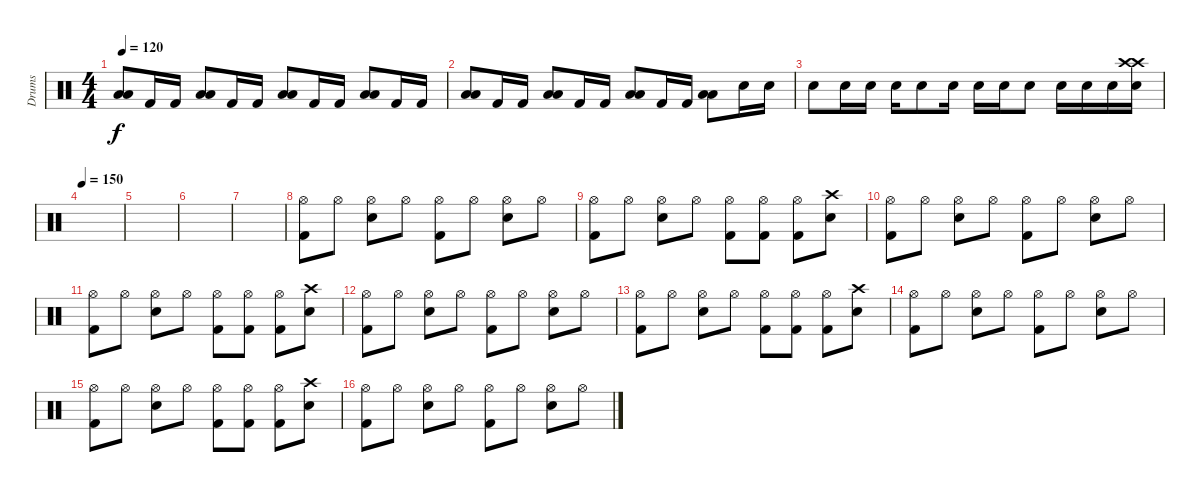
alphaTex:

\track ("Drums" "Drums") {instrument percussion}
\staff {score}
\articulation defaults
\ts (4 4)
\tempo 120
\clef neutral
\ks c
("Low Floor Tom (hit)" "Low Tom (hit)").8{dy f} "Kick (hit) 2".16 "Kick (hit) 2".16 ("Low Floor Tom (hit)" "Low Tom (hit)").8 "Kick (hit) 2".16 "Kick (hit) 2".16 ("Low Floor Tom (hit)" "Low Tom (hit)").8 "Kick (hit) 2".16 "Kick (hit) 2".16 ("Low Floor Tom (hit)" "Low Tom (hit)").8 "Kick (hit) 2".16 "Kick (hit) 2".16 |
("Low Floor Tom (hit)" "Low Tom (hit)").8 "Kick (hit) 2".16 "Kick (hit) 2".16 ("Low Floor Tom (hit)" "Low Tom (hit)").8 "Kick (hit) 2".16 "Kick (hit) 2".16 ("Low Floor Tom (hit)" "Low Tom (hit)").8 "Kick (hit) 2".16 "Kick (hit) 2".16 ("Low Floor Tom (hit)" "Low Tom (hit)").8 "Electric Snare (hit)".16 "Electric Snare (hit)".16 |
"Electric Snare (hit)".8 "Electric Snare (hit)".16 "Electric Snare (hit)".16 "Electric Snare (hit)".16 "Electric Snare (hit)".8 "Electric Snare (hit)".16 "Electric Snare (hit)".16 "Electric Snare (hit)".16 "Electric Snare (hit)".8 "Electric Snare (hit)".16 "Electric Snare (hit)".16 "Electric Snare (hit)".16 ("Crash high (hit)" "Crash high (hit)" "Electric Snare (hit)").16 |
\tempo 150
|
|
|
|
("Hi-Hat (open)" "Kick (hit) 2").8{volume 16} "Hi-Hat (open)".8 ("Hi-Hat (open)" "Electric Snare (hit)").8 "Hi-Hat (open)".8 ("Hi-Hat (open)" "Kick (hit) 2").8 "Hi-Hat (open)".8 ("Hi-Hat (open)" "Electric Snare (hit)").8 "Hi-Hat (open)".8 |
("Hi-Hat (open)" "Kick (hit) 2").8{volume 16} "Hi-Hat (open)".8 ("Hi-Hat (open)" "Electric Snare (hit)").8 "Hi-Hat (open)".8 ("Hi-Hat (open)" "Kick (hit) 2").8 ("Hi-Hat (open)" "Kick (hit) 2").8 ("Hi-Hat (open)" "Kick (hit) 2").8 ("Crash high (hit)" "Electric Snare (hit)").8 |
("Hi-Hat (open)" "Kick (hit) 2").8{volume 16} "Hi-Hat (open)".8 ("Hi-Hat (open)" "Electric Snare (hit)").8 "Hi-Hat (open)".8 ("Hi-Hat (open)" "Kick (hit) 2").8 "Hi-Hat (open)".8 ("Hi-Hat (open)" "Electric Snare (hit)").8 "Hi-Hat (open)".8 |
("Hi-Hat (open)" "Kick (hit) 2").8{volume 16} "Hi-Hat (open)".8 ("Hi-Hat (open)" "Electric Snare (hit)").8 "Hi-Hat (open)".8 ("Hi-Hat (open)" "Kick (hit) 2").8 ("Hi-Hat (open)" "Kick (hit) 2").8 ("Hi-Hat (open)" "Kick (hit) 2").8 ("Crash high (hit)" "Electric Snare (hit)").8 |
("Hi-Hat (open)" "Kick (hit) 2").8{volume 16} "Hi-Hat (open)".8 ("Hi-Hat (open)" "Electric Snare (hit)").8 "Hi-Hat (open)".8 ("Hi-Hat (open)" "Kick (hit) 2").8 "Hi-Hat (open)".8 ("Hi-Hat (open)" "Electric Snare (hit)").8 "Hi-Hat (open)".8 |
("Hi-Hat (open)" "Kick (hit) 2").8{volume 16} "Hi-Hat (open)".8 ("Hi-Hat (open)" "Electric Snare (hit)").8 "Hi-Hat (open)".8 ("Hi-Hat (open)" "Kick (hit) 2").8 ("Hi-Hat (open)" "Kick (hit) 2").8 ("Hi-Hat (open)" "Kick (hit) 2").8 ("Crash high (hit)" "Electric Snare (hit)").8 |
("Hi-Hat (open)" "Kick (hit) 2").8{volume 16} "Hi-Hat (open)".8 ("Hi-Hat (open)" "Electric Snare (hit)").8 "Hi-Hat (open)".8 ("Hi-Hat (open)" "Kick (hit) 2").8 "Hi-Hat (open)".8 ("Hi-Hat (open)" "Electric Snare (hit)").8 "Hi-Hat (open)".8 |
("Hi-Hat (open)" "Kick (hit) 2").8{volume 16} "Hi-Hat (open)".8 ("Hi-Hat (open)" "Electric Snare (hit)").8 "Hi-Hat (open)".8 ("Hi-Hat (open)" "Kick (hit) 2").8 ("Hi-Hat (open)" "Kick (hit) 2").8 ("Hi-Hat (open)" "Kick (hit) 2").8 ("Crash high (hit)" "Electric Snare (hit)").8 |
("Hi-Hat (open)" "Kick (hit) 2").8{volume 16} "Hi-Hat (open)".8 ("Hi-Hat (open)" "Electric Snare (hit)").8 "Hi-Hat (open)".8 ("Hi-Hat (open)" "Kick (hit) 2").8 "Hi-Hat (open)".8 ("Hi-Hat (open)" "Electric Snare (hit)").8 "Hi-Hat (open)".8
